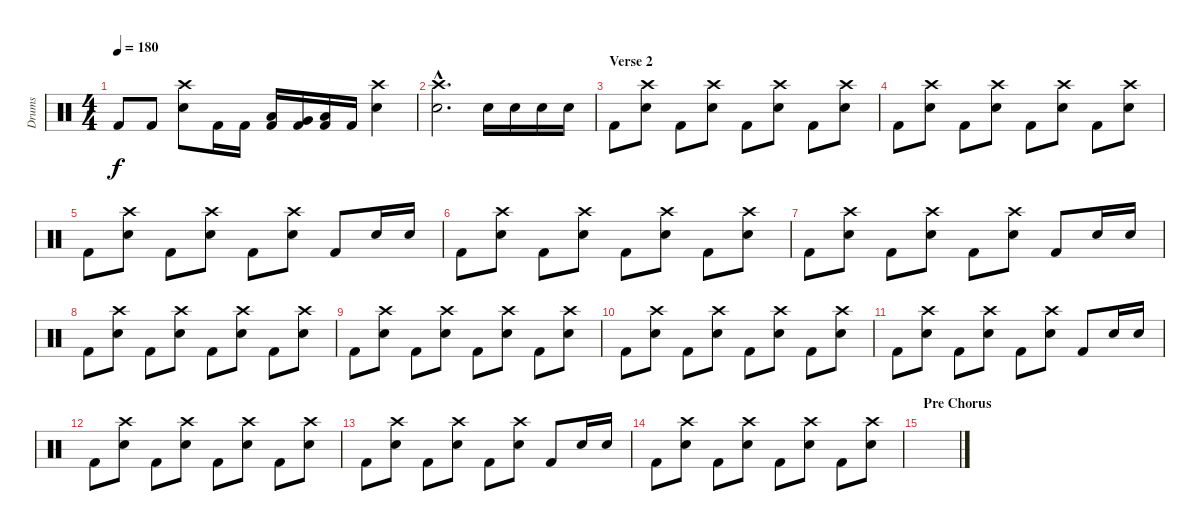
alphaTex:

\track ("Drums" "Drums") {instrument percussion}
\staff {score}
\articulation defaults
\ts (4 4)
\tempo 180
\clef neutral
\ks c "Kick (hit) 2".8{dy f} "Kick (hit) 2".8
("Crash high (hit)" "Electric Snare (hit)").8 "Kick (hit) 2".16 "Kick (hit) 2".16 ("Low Tom (hit)" "Kick (hit) 2").16 ("Very Low Tom (hit)" "Kick (hit) 2").16 ("Low Floor Tom (hit)" "Kick (hit) 2").16 "Kick (hit) 2".16 ("Crash high (hit)" "Electric Snare (hit)").4 |
("Electric Snare (hit)"{hac} "Crash high (hit)"{hac}).2{d} "Snare (hit) 2".16 "Snare (hit) 2".16 "Snare (hit) 2".16 "Snare (hit) 2".16 |
\section ("" "Verse 2")
"Kick (hit) 2".8 ("Crash high (hit)" "Snare (hit) 2").8 "Kick (hit) 2".8 ("Crash high (hit)" "Snare (hit) 2").8 "Kick (hit) 2".8 ("Crash high (hit)" "Snare (hit) 2").8 "Kick (hit) 2".8 ("Crash high (hit)" "Snare (hit) 2").8 |
"Kick (hit) 2".8 ("Crash high (hit)" "Snare (hit) 2").8 "Kick (hit) 2".8 ("Crash high (hit)" "Snare (hit) 2").8 "Kick (hit) 2".8 ("Crash high (hit)" "Snare (hit) 2").8 "Kick (hit) 2".8 ("Crash high (hit)" "Snare (hit) 2").8 |
"Kick (hit) 2".8 ("Crash high (hit)" "Snare (hit) 2").8 "Kick (hit) 2".8 ("Crash high (hit)" "Snare (hit) 2").8 "Kick (hit) 2".8 ("Crash high (hit)" "Snare (hit) 2").8 "Kick (hit) 2".8 "Snare (hit) 2".16 "Snare (hit) 2".16 |
"Kick (hit) 2".8 ("Crash high (hit)" "Snare (hit) 2").8 "Kick (hit) 2".8 ("Crash high (hit)" "Snare (hit) 2").8 "Kick (hit) 2".8 ("Crash high (hit)" "Snare (hit) 2").8 "Kick (hit) 2".8 ("Crash high (hit)" "Snare (hit) 2").8 |
"Kick (hit) 2".8 ("Crash high (hit)" "Snare (hit) 2").8 "Kick (hit) 2".8 ("Crash high (hit)" "Snare (hit) 2").8 "Kick (hit) 2".8 ("Crash high (hit)" "Snare (hit) 2").8 "Kick (hit) 2".8 "Snare (hit) 2".16 "Snare (hit) 2".16 |
"Kick (hit) 2".8 ("Crash high (hit)" "Snare (hit) 2").8 "Kick (hit) 2".8 ("Crash high (hit)" "Snare (hit) 2").8 "Kick (hit) 2".8 ("Crash high (hit)" "Snare (hit) 2").8 "Kick (hit) 2".8 ("Crash high (hit)" "Snare (hit) 2").8 |
"Kick (hit) 2".8 ("Crash high (hit)" "Snare (hit) 2").8 "Kick (hit) 2".8 ("Crash high (hit)" "Snare (hit) 2").8 "Kick (hit) 2".8 ("Crash high (hit)" "Snare (hit) 2").8 "Kick (hit) 2".8 ("Crash high (hit)" "Snare (hit) 2").8 |
"Kick (hit) 2".8 ("Crash high (hit)" "Snare (hit) 2").8 "Kick (hit) 2".8 ("Crash high (hit)" "Snare (hit) 2").8 "Kick (hit) 2".8 ("Crash high (hit)" "Snare (hit) 2").8 "Kick (hit) 2".8 ("Crash high (hit)" "Snare (hit) 2").8 |
"Kick (hit) 2".8 ("Crash high (hit)" "Snare (hit) 2").8 "Kick (hit) 2".8 ("Crash high (hit)" "Snare (hit) 2").8 "Kick (hit) 2".8 ("Crash high (hit)" "Snare (hit) 2").8 "Kick (hit) 2".8 "Snare (hit) 2".16 "Snare (hit) 2".16 |
"Kick (hit) 2".8 ("Crash high (hit)" "Snare (hit) 2").8 "Kick (hit) 2".8 ("Crash high (hit)" "Snare (hit) 2").8 "Kick (hit) 2".8 ("Crash high (hit)" "Snare (hit) 2").8 "Kick (hit) 2".8 ("Crash high (hit)" "Snare (hit) 2").8 |
"Kick (hit) 2".8 ("Crash high (hit)" "Snare (hit) 2").8 "Kick (hit) 2".8 ("Crash high (hit)" "Snare (hit) 2").8 "Kick (hit) 2".8 ("Crash high (hit)" "Snare (hit) 2").8 "Kick (hit) 2".8 "Snare (hit) 2".16 "Snare (hit) 2".16 |
"Kick (hit) 2".8 ("Crash high (hit)" "Snare (hit) 2").8 "Kick (hit) 2".8 ("Crash high (hit)" "Snare (hit) 2").8 "Kick (hit) 2".8 ("Crash high (hit)" "Snare (hit) 2").8 "Kick (hit) 2".8 ("Crash high (hit)" "Snare (hit) 2").8 |
\section ("" "Pre Chorus")
